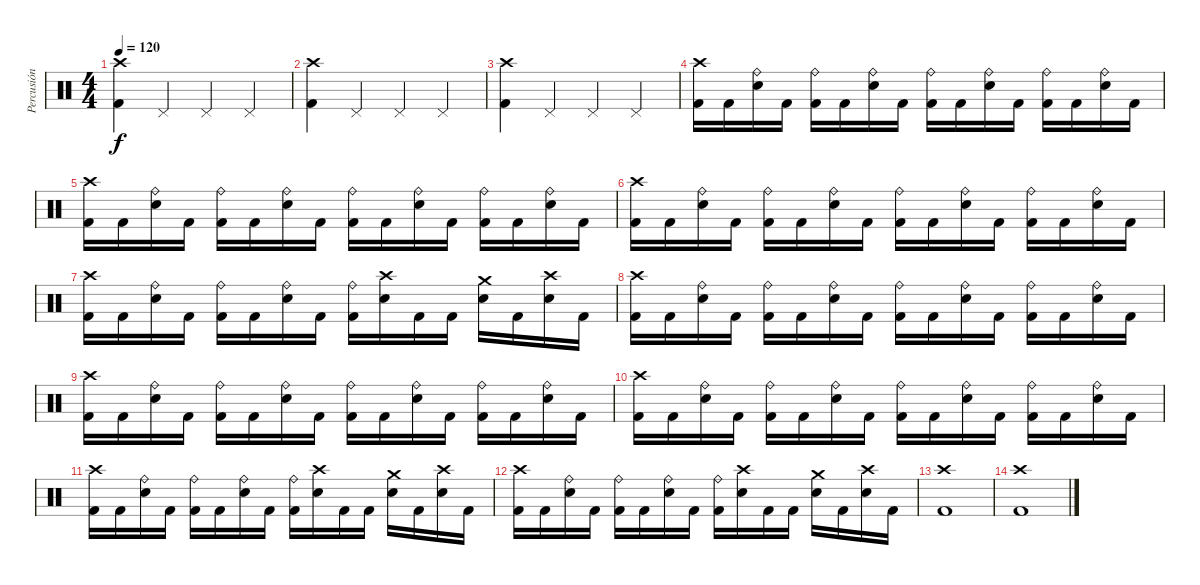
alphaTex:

\track ("Percusión" "Percusión") {instrument percussion}
\staff {score}
\articulation defaults
\ts (4 4)
\tempo 120
\clef neutral
\ks c
("Crash high (hit)" "Kick (hit) 2").4{dy f} "Pedal Hi-Hat (hit)".4 "Pedal Hi-Hat (hit)".4 "Pedal Hi-Hat (hit)".4 |
("Crash high (hit)" "Kick (hit) 2").4 "Pedal Hi-Hat (hit)".4 "Pedal Hi-Hat (hit)".4 "Pedal Hi-Hat (hit)".4 |
("Crash high (hit)" "Kick (hit) 2").4 "Pedal Hi-Hat (hit)".4 "Pedal Hi-Hat (hit)".4 "Pedal Hi-Hat (hit)".4 |
("Crash high (hit)" "Kick (hit) 2").16 "Kick (hit) 2".16 ("Ride (bell)" "Electric Snare (hit)").16 "Kick (hit) 2".16 ("Ride (bell)" "Kick (hit) 2").16 "Kick (hit) 2".16 ("Ride (bell)" "Electric Snare (hit)").16 "Kick (hit) 2".16 ("Ride (bell)" "Kick (hit) 2").16 "Kick (hit) 2".16 ("Ride (bell)" "Electric Snare (hit)").16 "Kick (hit) 2".16 ("Ride (bell)" "Kick (hit) 2").16 "Kick (hit) 2".16 ("Ride (bell)" "Electric Snare (hit)").16 "Kick (hit) 2".16 |
("Crash high (hit)" "Kick (hit) 2").16 "Kick (hit) 2".16 ("Ride (bell)" "Electric Snare (hit)").16 "Kick (hit) 2".16 ("Ride (bell)" "Kick (hit) 2").16 "Kick (hit) 2".16 ("Ride (bell)" "Electric Snare (hit)").16 "Kick (hit) 2".16 ("Ride (bell)" "Kick (hit) 2").16 "Kick (hit) 2".16 ("Ride (bell)" "Electric Snare (hit)").16 "Kick (hit) 2".16 ("Ride (bell)" "Kick (hit) 2").16 "Kick (hit) 2".16 ("Ride (bell)" "Electric Snare (hit)").16 "Kick (hit) 2".16 |
("Crash high (hit)" "Kick (hit) 2").16 "Kick (hit) 2".16 ("Ride (bell)" "Electric Snare (hit)").16 "Kick (hit) 2".16 ("Ride (bell)" "Kick (hit) 2").16 "Kick (hit) 2".16 ("Ride (bell)" "Electric Snare (hit)").16 "Kick (hit) 2".16 ("Ride (bell)" "Kick (hit) 2").16 "Kick (hit) 2".16 ("Ride (bell)" "Electric Snare (hit)").16 "Kick (hit) 2".16 ("Ride (bell)" "Kick (hit) 2").16 "Kick (hit) 2".16 ("Ride (bell)" "Electric Snare (hit)").16 "Kick (hit) 2".16 |
("Crash high (hit)" "Kick (hit) 2").16 "Kick (hit) 2".16 ("Ride (bell)" "Electric Snare (hit)").16 "Kick (hit) 2".16 ("Ride (bell)" "Kick (hit) 2").16 "Kick (hit) 2".16 ("Ride (bell)" "Electric Snare (hit)").16 "Kick (hit) 2".16 ("Ride (bell)" "Kick (hit) 2").16 ("Crash high (hit)" "Electric Snare (hit)").16 "Kick (hit) 2".16 "Kick (hit) 2".16 ("Crash medium (hit)" "Electric Snare (hit)").16 "Kick (hit) 2".16 ("Crash high (hit)" "Electric Snare (hit)").16 "Kick (hit) 2".16 |
("Crash high (hit)" "Kick (hit) 2").16 "Kick (hit) 2".16 ("Ride (bell)" "Electric Snare (hit)").16 "Kick (hit) 2".16 ("Ride (bell)" "Kick (hit) 2").16 "Kick (hit) 2".16 ("Ride (bell)" "Electric Snare (hit)").16 "Kick (hit) 2".16 ("Ride (bell)" "Kick (hit) 2").16 "Kick (hit) 2".16 ("Ride (bell)" "Electric Snare (hit)").16 "Kick (hit) 2".16 ("Ride (bell)" "Kick (hit) 2").16 "Kick (hit) 2".16 ("Ride (bell)" "Electric Snare (hit)").16 "Kick (hit) 2".16 |
("Crash high (hit)" "Kick (hit) 2").16 "Kick (hit) 2".16 ("Ride (bell)" "Electric Snare (hit)").16 "Kick (hit) 2".16 ("Ride (bell)" "Kick (hit) 2").16 "Kick (hit) 2".16 ("Ride (bell)" "Electric Snare (hit)").16 "Kick (hit) 2".16 ("Ride (bell)" "Kick (hit) 2").16 "Kick (hit) 2".16 ("Ride (bell)" "Electric Snare (hit)").16 "Kick (hit) 2".16 ("Ride (bell)" "Kick (hit) 2").16 "Kick (hit) 2".16 ("Ride (bell)" "Electric Snare (hit)").16 "Kick (hit) 2".16 |
("Crash high (hit)" "Kick (hit) 2").16 "Kick (hit) 2".16 ("Ride (bell)" "Electric Snare (hit)").16 "Kick (hit) 2".16 ("Ride (bell)" "Kick (hit) 2").16 "Kick (hit) 2".16 ("Ride (bell)" "Electric Snare (hit)").16 "Kick (hit) 2".16 ("Ride (bell)" "Kick (hit) 2").16 "Kick (hit) 2".16 ("Ride (bell)" "Electric Snare (hit)").16 "Kick (hit) 2".16 ("Ride (bell)" "Kick (hit) 2").16 "Kick (hit) 2".16 ("Ride (bell)" "Electric Snare (hit)").16 "Kick (hit) 2".16 |
("Crash high (hit)" "Kick (hit) 2").16 "Kick (hit) 2".16 ("Ride (bell)" "Electric Snare (hit)").16 "Kick (hit) 2".16 ("Ride (bell)" "Kick (hit) 2").16 "Kick (hit) 2".16 ("Ride (bell)" "Electric Snare (hit)").16 "Kick (hit) 2".16 ("Ride (bell)" "Kick (hit) 2").16 ("Crash high (hit)" "Electric Snare (hit)").16 "Kick (hit) 2".16 "Kick (hit) 2".16 ("Crash medium (hit)" "Electric Snare (hit)").16 "Kick (hit) 2".16 ("Crash high (hit)" "Electric Snare (hit)").16 "Kick (hit) 2".16 |
("Crash high (hit)" "Kick (hit) 2").16 "Kick (hit) 2".16 ("Ride (bell)" "Electric Snare (hit)").16 "Kick (hit) 2".16 ("Ride (bell)" "Kick (hit) 2").16 "Kick (hit) 2".16 ("Ride (bell)" "Electric Snare (hit)").16 "Kick (hit) 2".16 ("Ride (bell)" "Kick (hit) 2").16 ("Crash high (hit)" "Electric Snare (hit)").16 "Kick (hit) 2".16 "Kick (hit) 2".16 ("Crash medium (hit)" "Electric Snare (hit)").16 "Kick (hit) 2".16 ("Crash high (hit)" "Electric Snare (hit)").16 "Kick (hit) 2".16 |
("Crash high (hit)" "Kick (hit) 2").1 |
("Crash high (hit)" "Kick (hit) 2").1
